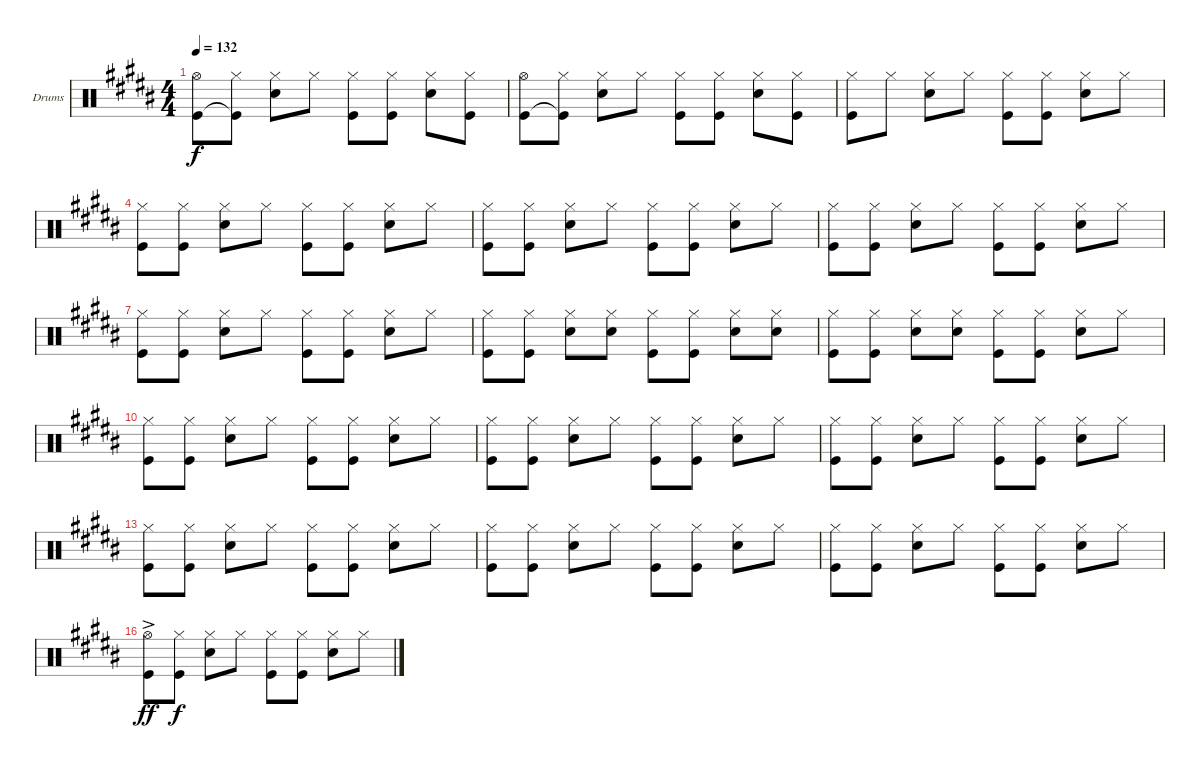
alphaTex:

\bracketExtendMode nobrackets
\firstSystemTrackNameOrientation horizontal
\otherSystemsTrackNameOrientation horizontal
\defaultBarNumberDisplay FirstOfSystem
\track ("Drumkit" "Drums") {instrument percussion}
\staff {score}
\articulation defaults
\ts (4 4)
\tempo 132
\clef neutral
\ks b
("Hi-Hat (open)" "Kick (hit)").8{dy f} ("Hi-Hat (closed)" "Kick (hit)"{t}).8 ("Hi-Hat (closed)" "Snare (hit) 2").8 "Hi-Hat (closed)".8 ("Hi-Hat (closed)" "Kick (hit)").8 ("Hi-Hat (closed)" "Kick (hit)").8 ("Hi-Hat (closed)" "Snare (hit) 2").8 ("Hi-Hat (closed)" "Kick (hit)").8 |
("Hi-Hat (open)" "Kick (hit)").8 ("Hi-Hat (closed)" "Kick (hit)"{t}).8 ("Hi-Hat (closed)" "Snare (hit) 2").8 "Hi-Hat (closed)".8 ("Hi-Hat (closed)" "Kick (hit)").8 ("Hi-Hat (closed)" "Kick (hit)").8 ("Hi-Hat (closed)" "Snare (hit) 2").8 ("Hi-Hat (closed)" "Kick (hit)").8 |
("Hi-Hat (closed)" "Kick (hit)").8 "Hi-Hat (closed)".8 ("Hi-Hat (closed)" "Snare (hit) 2").8 "Hi-Hat (closed)".8 ("Hi-Hat (closed)" "Kick (hit)").8 ("Hi-Hat (closed)" "Kick (hit)").8 ("Hi-Hat (closed)" "Snare (hit) 2").8 "Hi-Hat (closed)".8 |
("Hi-Hat (closed)" "Kick (hit)").8 ("Hi-Hat (closed)" "Kick (hit)").8 ("Hi-Hat (closed)" "Snare (hit) 2").8 "Hi-Hat (closed)".8 ("Hi-Hat (closed)" "Kick (hit)").8 ("Hi-Hat (closed)" "Kick (hit)").8 ("Hi-Hat (closed)" "Snare (hit) 2").8 "Hi-Hat (closed)".8 |
("Hi-Hat (closed)" "Kick (hit)").8 ("Hi-Hat (closed)" "Kick (hit)").8 ("Hi-Hat (closed)" "Snare (hit) 2").8 "Hi-Hat (closed)".8 ("Hi-Hat (closed)" "Kick (hit)").8 ("Hi-Hat (closed)" "Kick (hit)").8 ("Hi-Hat (closed)" "Snare (hit) 2").8 "Hi-Hat (closed)".8 |
("Hi-Hat (closed)" "Kick (hit)").8 ("Hi-Hat (closed)" "Kick (hit)").8 ("Hi-Hat (closed)" "Snare (hit) 2").8 "Hi-Hat (closed)".8 ("Hi-Hat (closed)" "Kick (hit)").8 ("Hi-Hat (closed)" "Kick (hit)").8 ("Hi-Hat (closed)" "Snare (hit) 2").8 "Hi-Hat (closed)".8 |
("Hi-Hat (closed)" "Kick (hit)").8 ("Hi-Hat (closed)" "Kick (hit)").8 ("Hi-Hat (closed)" "Snare (hit) 2").8 "Hi-Hat (closed)".8 ("Hi-Hat (closed)" "Kick (hit)").8 ("Hi-Hat (closed)" "Kick (hit)").8 ("Hi-Hat (closed)" "Snare (hit) 2").8 "Hi-Hat (closed)".8 |
("Hi-Hat (closed)" "Kick (hit)").8 ("Hi-Hat (closed)" "Kick (hit)").8 ("Hi-Hat (closed)" "Snare (hit) 2").8 ("Hi-Hat (closed)" "Snare (hit) 2").8 ("Hi-Hat (closed)" "Kick (hit)").8 ("Hi-Hat (closed)" "Kick (hit)").8 ("Hi-Hat (closed)" "Snare (hit) 2").8 ("Hi-Hat (closed)" "Snare (hit) 2").8 |
("Hi-Hat (closed)" "Kick (hit)").8 ("Hi-Hat (closed)" "Kick (hit)").8 ("Hi-Hat (closed)" "Snare (hit) 2").8 ("Hi-Hat (closed)" "Snare (hit) 2").8 ("Hi-Hat (closed)" "Kick (hit)").8 ("Hi-Hat (closed)" "Kick (hit)").8 ("Hi-Hat (closed)" "Snare (hit) 2").8 "Hi-Hat (closed)".8 |
("Hi-Hat (closed)" "Kick (hit)").8 ("Hi-Hat (closed)" "Kick (hit)").8 ("Hi-Hat (closed)" "Snare (hit) 2").8 "Hi-Hat (closed)".8 ("Hi-Hat (closed)" "Kick (hit)").8 ("Hi-Hat (closed)" "Kick (hit)").8 ("Hi-Hat (closed)" "Snare (hit) 2").8 "Hi-Hat (closed)".8 |
("Hi-Hat (closed)" "Kick (hit)").8 ("Hi-Hat (closed)" "Kick (hit)").8 ("Hi-Hat (closed)" "Snare (hit) 2").8 "Hi-Hat (closed)".8 ("Hi-Hat (closed)" "Kick (hit)").8 ("Hi-Hat (closed)" "Kick (hit)").8 ("Hi-Hat (closed)" "Snare (hit) 2").8 "Hi-Hat (closed)".8 |
("Hi-Hat (closed)" "Kick (hit)").8 ("Hi-Hat (closed)" "Kick (hit)").8 ("Hi-Hat (closed)" "Snare (hit) 2").8 "Hi-Hat (closed)".8 ("Hi-Hat (closed)" "Kick (hit)").8 ("Hi-Hat (closed)" "Kick (hit)").8 ("Hi-Hat (closed)" "Snare (hit) 2").8 "Hi-Hat (closed)".8 |
("Hi-Hat (closed)" "Kick (hit)").8 ("Hi-Hat (closed)" "Kick (hit)").8 ("Hi-Hat (closed)" "Snare (hit) 2").8 "Hi-Hat (closed)".8 ("Hi-Hat (closed)" "Kick (hit)").8 ("Hi-Hat (closed)" "Kick (hit)").8 ("Hi-Hat (closed)" "Snare (hit) 2").8 "Hi-Hat (closed)".8 |
("Hi-Hat (closed)" "Kick (hit)").8 ("Hi-Hat (closed)" "Kick (hit)").8 ("Hi-Hat (closed)" "Snare (hit) 2").8 "Hi-Hat (closed)".8 ("Hi-Hat (closed)" "Kick (hit)").8 ("Hi-Hat (closed)" "Kick (hit)").8 ("Hi-Hat (closed)" "Snare (hit) 2").8 "Hi-Hat (closed)".8 |
("Hi-Hat (closed)" "Kick (hit)").8 ("Hi-Hat (closed)" "Kick (hit)").8 ("Hi-Hat (closed)" "Snare (hit) 2").8 "Hi-Hat (closed)".8 ("Hi-Hat (closed)" "Kick (hit)").8 ("Hi-Hat (closed)" "Kick (hit)").8 ("Hi-Hat (closed)" "Snare (hit) 2").8 "Hi-Hat (closed)".8 |
("Hi-Hat (open)"{ac} "Kick (hit)"{ac}).8{dy ff} ("Hi-Hat (closed)" "Kick (hit)").8{dy f} ("Hi-Hat (closed)" "Snare (hit) 2").8 "Hi-Hat (closed)".8 ("Hi-Hat (closed)" "Kick (hit)").8 ("Hi-Hat (closed)" "Kick (hit)").8 ("Hi-Hat (closed)" "Snare (hit) 2").8 "Hi-Hat (closed)".8
